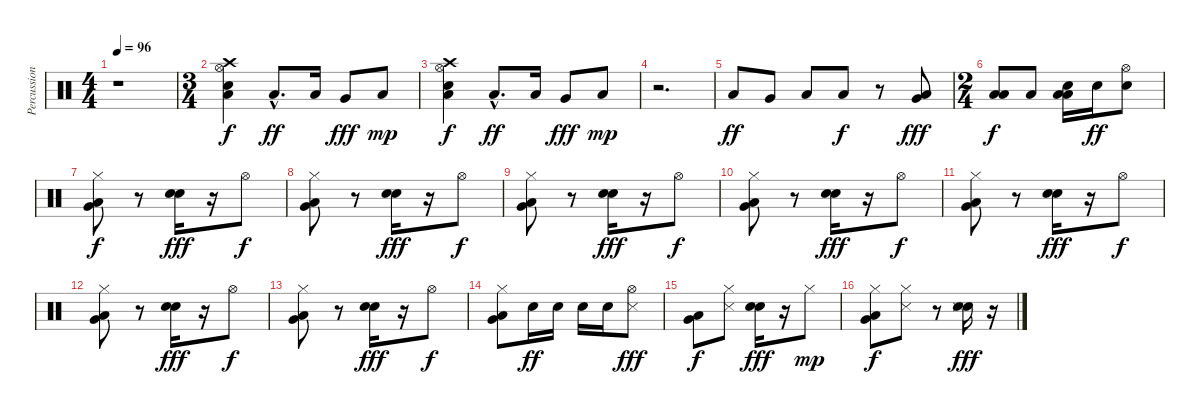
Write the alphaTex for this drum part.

\track ("Percussion" "Percussion") {instrument percussion}
\staff {score}
\articulation defaults
\ts (4 4)
\tempo 96
\clef neutral
\ks c
r.1{dy f} |
\ts (3 4)
("Crash high (hit)" "Hi-Hat (open)" "Snare (hit) 2" "Low Floor Tom (hit)").4 "Low Tom (hit)"{hac}.8{d dy ff} "Low Tom (hit)".16 "Very Low Tom (hit)".8{dy fff} "Low Floor Tom (hit)".8{dy mp} |
("Crash high (hit)" "Hi-Hat (open)" "Snare (hit) 2" "Low Floor Tom (hit)").4{dy f} "Low Tom (hit)"{hac}.8{d dy ff} "Low Tom (hit)".16 "Very Low Tom (hit)".8{dy fff} "Low Floor Tom (hit)".8{dy mp} |
r.2{d} |
"Low Tom (hit)".8{dy ff} "Very Low Tom (hit)".8 "Low Tom (hit)".8 "Low Tom (hit)".8{dy f} r.8 ("Very Low Tom (hit)" "Low Tom (hit)").8{dy fff} |
\ts (2 4)
("Low Floor Tom (hit)" "Low Tom (hit)").8{dy f} "Low Floor Tom (hit)".8 ("Snare (hit) 2" "Low Floor Tom (hit)" "Low Tom (hit)").16 "Electric Snare (hit)".16{dy ff} ("Hi-Hat (open)" "Electric Snare (hit)").8 |
("Hi-Hat (closed)" "Very Low Tom (hit)" "Low Floor Tom (hit)").8{dy f} r.8 ("Electric Snare (hit)" "Snare (hit) 2").16{dy fff} r.16 "Hi-Hat (open)".8{dy f} |
("Hi-Hat (closed)" "Very Low Tom (hit)" "Low Floor Tom (hit)").8 r.8 ("Electric Snare (hit)" "Snare (hit) 2").16{dy fff} r.16 "Hi-Hat (open)".8{dy f} |
("Hi-Hat (closed)" "Very Low Tom (hit)" "Low Floor Tom (hit)").8 r.8 ("Electric Snare (hit)" "Snare (hit) 2").16{dy fff} r.16 "Hi-Hat (open)".8{dy f} |
("Hi-Hat (closed)" "Very Low Tom (hit)" "Low Floor Tom (hit)").8 r.8 ("Electric Snare (hit)" "Snare (hit) 2").16{dy fff} r.16 "Hi-Hat (open)".8{dy f} |
("Hi-Hat (closed)" "Very Low Tom (hit)" "Low Floor Tom (hit)").8 r.8 ("Electric Snare (hit)" "Snare (hit) 2").16{dy fff} r.16 "Hi-Hat (open)".8{dy f} |
("Hi-Hat (closed)" "Very Low Tom (hit)" "Low Floor Tom (hit)").8 r.8 ("Electric Snare (hit)" "Snare (hit) 2").16{dy fff} r.16 "Hi-Hat (open)".8{dy f} |
("Hi-Hat (closed)" "Very Low Tom (hit)" "Low Floor Tom (hit)").8 r.8 ("Electric Snare (hit)" "Snare (hit) 2").16{dy fff} r.16 "Hi-Hat (open)".8{dy f} |
("Hi-Hat (closed)" "Very Low Tom (hit)" "Low Floor Tom (hit)").8 "Snare (hit) 2".16{dy ff} "Snare (hit) 2".16 "Snare (hit) 2".16 "Snare (hit) 2".16 ("Hi-Hat (open)" "Snare (side stick) 3").8{dy fff} |
("Very Low Tom (hit)" "Low Floor Tom (hit)").8{dy f} ("Hi-Hat (closed)" "Snare (side stick) 3").8 ("Electric Snare (hit)" "Snare (hit) 2").16{dy fff} r.16 "Hi-Hat (closed)".8{dy mp} |
("Hi-Hat (closed)" "Very Low Tom (hit)" "Low Floor Tom (hit)").8{dy f} ("Hi-Hat (closed)" "Snare (side stick) 3").8 r.8 ("Electric Snare (hit)" "Snare (hit) 2" "Snare (side stick) 3").16{dy fff} r.16
